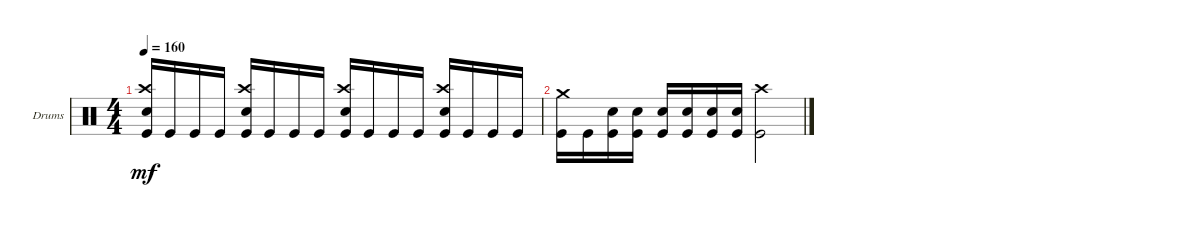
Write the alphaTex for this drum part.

\bracketExtendMode groupsimilarinstruments
\firstSystemTrackNameOrientation horizontal
\otherSystemsTrackNameOrientation horizontal
\track ("Nick Augusto" "Drums") {instrument percussion}
\staff {score}
\articulation defaults
\ts (4 4)
\tempo 160
\clef neutral
\ks c
("Kick (hit)" "Crash high (hit)" "Snare (hit) 2").16{dy mf} "Kick (hit)".16 "Kick (hit)".16 "Kick (hit)".16 ("Kick (hit)" "Crash high (hit)" "Snare (hit) 2").16 "Kick (hit)".16 "Kick (hit)".16 "Kick (hit)".16 ("Kick (hit)" "Crash high (hit)" "Snare (hit) 2").16 "Kick (hit)".16 "Kick (hit)".16 "Kick (hit)".16 ("Kick (hit)" "Crash high (hit)" "Snare (hit) 2").16 "Kick (hit)".16 "Kick (hit)".16 "Kick (hit)".16 |
("Kick (hit)" "Crash medium (hit)").16 "Kick (hit)".16 ("Kick (hit)" "Snare (hit) 2").16 ("Kick (hit)" "Snare (hit) 2").16 ("Kick (hit)" "Snare (hit) 2").16 ("Kick (hit)" "Snare (hit) 2").16 ("Kick (hit)" "Snare (hit) 2").16 ("Kick (hit)" "Snare (hit) 2").16 ("Kick (hit)" "Crash high (hit)").2
